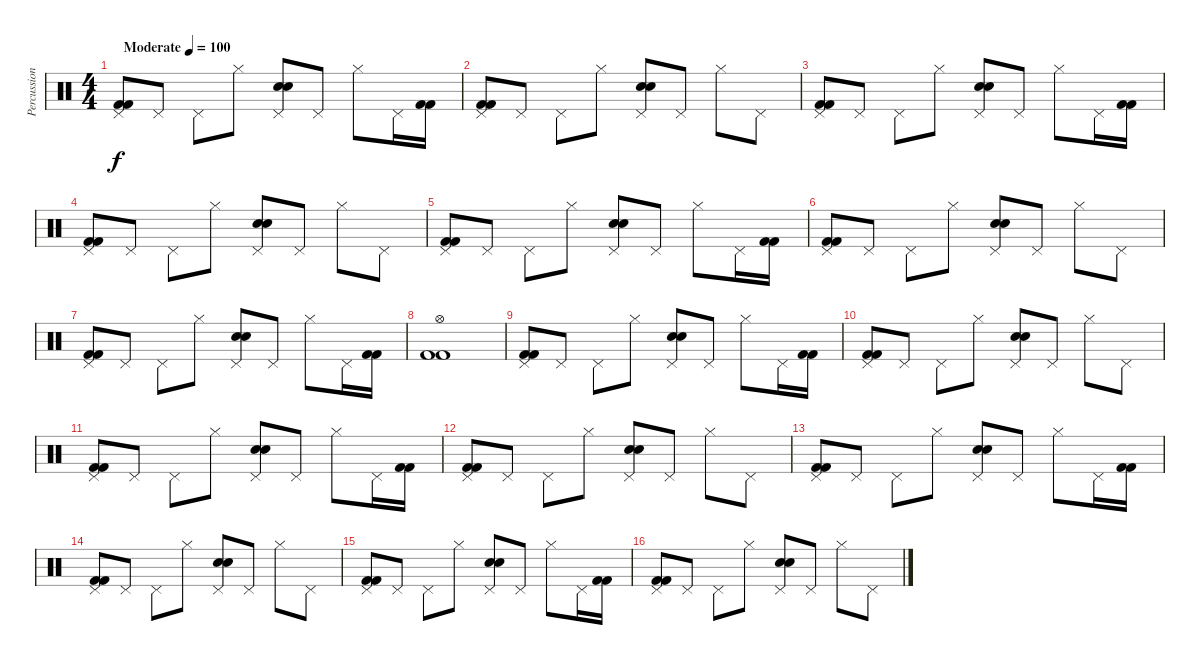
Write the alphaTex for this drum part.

\track ("Percussioni" "Percussion") {instrument percussion}
\staff {score}
\articulation defaults
\ts (4 4)
\tempo (100 "Moderate")
\clef neutral
\ks c
("Pedal Hi-Hat (hit)" "Kick (hit) 2" "Kick (hit) 2").8{dy f} "Pedal Hi-Hat (hit)".8 "Pedal Hi-Hat (hit)".8 "Hi-Hat (closed)".8 ("Pedal Hi-Hat (hit)" "Snare (hit) 2" "Snare (hit) 2").8 "Pedal Hi-Hat (hit)".8 "Hi-Hat (closed)".8 "Pedal Hi-Hat (hit)".16 ("Kick (hit) 2" "Kick (hit) 2").16 |
("Pedal Hi-Hat (hit)" "Kick (hit) 2" "Kick (hit) 2").8 "Pedal Hi-Hat (hit)".8 "Pedal Hi-Hat (hit)".8 "Hi-Hat (closed)".8 ("Pedal Hi-Hat (hit)" "Snare (hit) 2" "Snare (hit) 2").8 "Pedal Hi-Hat (hit)".8 "Hi-Hat (closed)".8 "Pedal Hi-Hat (hit)".8 |
("Pedal Hi-Hat (hit)" "Kick (hit) 2" "Kick (hit) 2").8 "Pedal Hi-Hat (hit)".8 "Pedal Hi-Hat (hit)".8 "Hi-Hat (closed)".8 ("Pedal Hi-Hat (hit)" "Snare (hit) 2" "Snare (hit) 2").8 "Pedal Hi-Hat (hit)".8 "Hi-Hat (closed)".8 "Pedal Hi-Hat (hit)".16 ("Kick (hit) 2" "Kick (hit) 2").16 |
("Pedal Hi-Hat (hit)" "Kick (hit) 2" "Kick (hit) 2").8 "Pedal Hi-Hat (hit)".8 "Pedal Hi-Hat (hit)".8 "Hi-Hat (closed)".8 ("Pedal Hi-Hat (hit)" "Snare (hit) 2" "Snare (hit) 2").8 "Pedal Hi-Hat (hit)".8 "Hi-Hat (closed)".8 "Pedal Hi-Hat (hit)".8 |
("Pedal Hi-Hat (hit)" "Kick (hit) 2" "Kick (hit) 2").8 "Pedal Hi-Hat (hit)".8 "Pedal Hi-Hat (hit)".8 "Hi-Hat (closed)".8 ("Pedal Hi-Hat (hit)" "Snare (hit) 2" "Snare (hit) 2").8 "Pedal Hi-Hat (hit)".8 "Hi-Hat (closed)".8 "Pedal Hi-Hat (hit)".16 ("Kick (hit) 2" "Kick (hit) 2").16 |
("Pedal Hi-Hat (hit)" "Kick (hit) 2" "Kick (hit) 2").8 "Pedal Hi-Hat (hit)".8 "Pedal Hi-Hat (hit)".8 "Hi-Hat (closed)".8 ("Pedal Hi-Hat (hit)" "Snare (hit) 2" "Snare (hit) 2").8 "Pedal Hi-Hat (hit)".8 "Hi-Hat (closed)".8 "Pedal Hi-Hat (hit)".8 |
("Pedal Hi-Hat (hit)" "Kick (hit) 2" "Kick (hit) 2").8 "Pedal Hi-Hat (hit)".8 "Pedal Hi-Hat (hit)".8 "Hi-Hat (closed)".8 ("Pedal Hi-Hat (hit)" "Snare (hit) 2" "Snare (hit) 2").8 "Pedal Hi-Hat (hit)".8 "Hi-Hat (closed)".8 "Pedal Hi-Hat (hit)".16 ("Kick (hit) 2" "Kick (hit) 2").16 |
("Hi-Hat (open)" "Kick (hit) 2" "Kick (hit) 2").1 |
("Pedal Hi-Hat (hit)" "Kick (hit) 2" "Kick (hit) 2").8 "Pedal Hi-Hat (hit)".8 "Pedal Hi-Hat (hit)".8 "Hi-Hat (closed)".8 ("Pedal Hi-Hat (hit)" "Snare (hit) 2" "Snare (hit) 2").8 "Pedal Hi-Hat (hit)".8 "Hi-Hat (closed)".8 "Pedal Hi-Hat (hit)".16 ("Kick (hit) 2" "Kick (hit) 2").16 |
("Pedal Hi-Hat (hit)" "Kick (hit) 2" "Kick (hit) 2").8 "Pedal Hi-Hat (hit)".8 "Pedal Hi-Hat (hit)".8 "Hi-Hat (closed)".8 ("Pedal Hi-Hat (hit)" "Snare (hit) 2" "Snare (hit) 2").8 "Pedal Hi-Hat (hit)".8 "Hi-Hat (closed)".8 "Pedal Hi-Hat (hit)".8 |
("Pedal Hi-Hat (hit)" "Kick (hit) 2" "Kick (hit) 2").8 "Pedal Hi-Hat (hit)".8 "Pedal Hi-Hat (hit)".8 "Hi-Hat (closed)".8 ("Pedal Hi-Hat (hit)" "Snare (hit) 2" "Snare (hit) 2").8 "Pedal Hi-Hat (hit)".8 "Hi-Hat (closed)".8 "Pedal Hi-Hat (hit)".16 ("Kick (hit) 2" "Kick (hit) 2").16 |
("Pedal Hi-Hat (hit)" "Kick (hit) 2" "Kick (hit) 2").8 "Pedal Hi-Hat (hit)".8 "Pedal Hi-Hat (hit)".8 "Hi-Hat (closed)".8 ("Pedal Hi-Hat (hit)" "Snare (hit) 2" "Snare (hit) 2").8 "Pedal Hi-Hat (hit)".8 "Hi-Hat (closed)".8 "Pedal Hi-Hat (hit)".8 |
("Pedal Hi-Hat (hit)" "Kick (hit) 2" "Kick (hit) 2").8 "Pedal Hi-Hat (hit)".8 "Pedal Hi-Hat (hit)".8 "Hi-Hat (closed)".8 ("Pedal Hi-Hat (hit)" "Snare (hit) 2" "Snare (hit) 2").8 "Pedal Hi-Hat (hit)".8 "Hi-Hat (closed)".8 "Pedal Hi-Hat (hit)".16 ("Kick (hit) 2" "Kick (hit) 2").16 |
("Pedal Hi-Hat (hit)" "Kick (hit) 2" "Kick (hit) 2").8 "Pedal Hi-Hat (hit)".8 "Pedal Hi-Hat (hit)".8 "Hi-Hat (closed)".8 ("Pedal Hi-Hat (hit)" "Snare (hit) 2" "Snare (hit) 2").8 "Pedal Hi-Hat (hit)".8 "Hi-Hat (closed)".8 "Pedal Hi-Hat (hit)".8 |
("Pedal Hi-Hat (hit)" "Kick (hit) 2" "Kick (hit) 2").8 "Pedal Hi-Hat (hit)".8 "Pedal Hi-Hat (hit)".8 "Hi-Hat (closed)".8 ("Pedal Hi-Hat (hit)" "Snare (hit) 2" "Snare (hit) 2").8 "Pedal Hi-Hat (hit)".8 "Hi-Hat (closed)".8 "Pedal Hi-Hat (hit)".16 ("Kick (hit) 2" "Kick (hit) 2").16 |
("Pedal Hi-Hat (hit)" "Kick (hit) 2" "Kick (hit) 2").8 "Pedal Hi-Hat (hit)".8 "Pedal Hi-Hat (hit)".8 "Hi-Hat (closed)".8 ("Pedal Hi-Hat (hit)" "Snare (hit) 2" "Snare (hit) 2").8 "Pedal Hi-Hat (hit)".8 "Hi-Hat (closed)".8 "Pedal Hi-Hat (hit)".8
